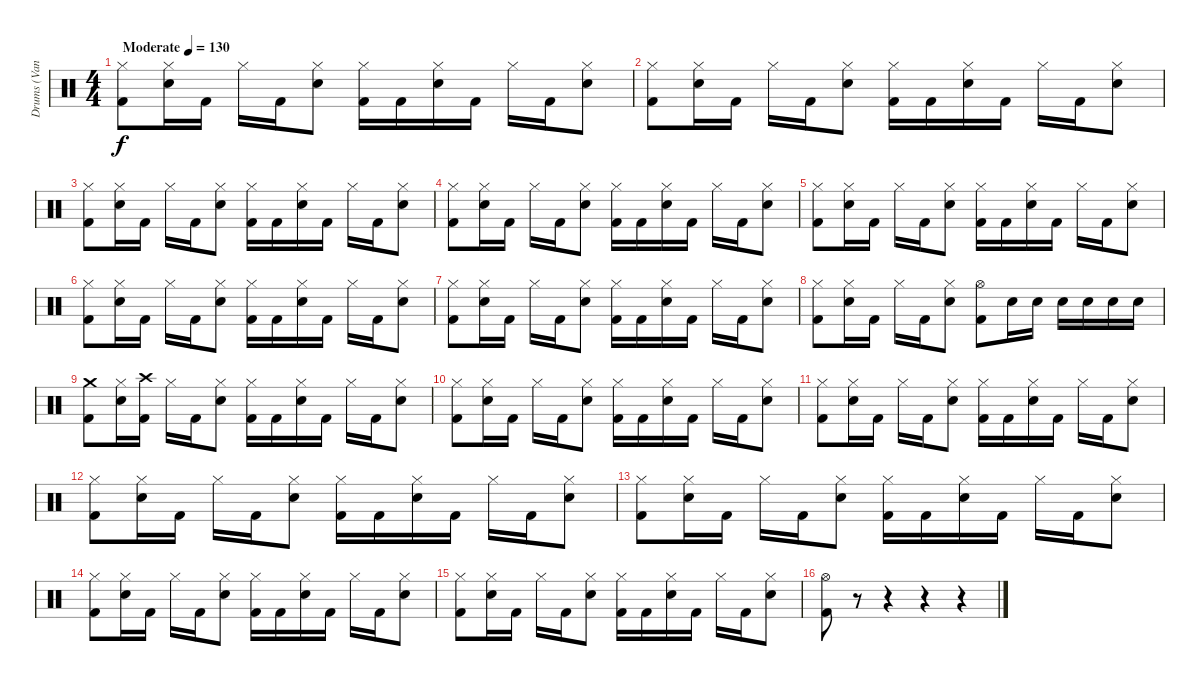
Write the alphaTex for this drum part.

\track ("Drums (Vandel)" "Drums (Van") {instrument percussion}
\staff {score}
\articulation defaults
\ts (4 4)
\tempo (130 "Moderate")
\clef neutral
\ks c
("Hi-Hat (closed)" "Kick (hit) 2").8{dy f} ("Hi-Hat (closed)" "Snare (hit) 2").16 "Kick (hit) 2".16 "Hi-Hat (closed)".16 "Kick (hit) 2".16 ("Hi-Hat (closed)" "Snare (hit) 2").8 ("Hi-Hat (closed)" "Kick (hit) 2").16 "Kick (hit) 2".16 ("Hi-Hat (closed)" "Snare (hit) 2").16 "Kick (hit) 2".16 "Hi-Hat (closed)".16 "Kick (hit) 2".16 ("Hi-Hat (closed)" "Snare (hit) 2").8 |
("Hi-Hat (closed)" "Kick (hit) 2").8 ("Hi-Hat (closed)" "Snare (hit) 2").16 "Kick (hit) 2".16 "Hi-Hat (closed)".16 "Kick (hit) 2".16 ("Hi-Hat (closed)" "Snare (hit) 2").8 ("Hi-Hat (closed)" "Kick (hit) 2").16 "Kick (hit) 2".16 ("Hi-Hat (closed)" "Snare (hit) 2").16 "Kick (hit) 2".16 "Hi-Hat (closed)".16 "Kick (hit) 2".16 ("Hi-Hat (closed)" "Snare (hit) 2").8 |
("Hi-Hat (closed)" "Kick (hit) 2").8 ("Hi-Hat (closed)" "Snare (hit) 2").16 "Kick (hit) 2".16 "Hi-Hat (closed)".16 "Kick (hit) 2".16 ("Hi-Hat (closed)" "Snare (hit) 2").8 ("Hi-Hat (closed)" "Kick (hit) 2").16 "Kick (hit) 2".16 ("Hi-Hat (closed)" "Snare (hit) 2").16 "Kick (hit) 2".16 "Hi-Hat (closed)".16 "Kick (hit) 2".16 ("Hi-Hat (closed)" "Snare (hit) 2").8 |
("Hi-Hat (closed)" "Kick (hit) 2").8 ("Hi-Hat (closed)" "Snare (hit) 2").16 "Kick (hit) 2".16 "Hi-Hat (closed)".16 "Kick (hit) 2".16 ("Hi-Hat (closed)" "Snare (hit) 2").8 ("Hi-Hat (closed)" "Kick (hit) 2").16 "Kick (hit) 2".16 ("Hi-Hat (closed)" "Snare (hit) 2").16 "Kick (hit) 2".16 "Hi-Hat (closed)".16 "Kick (hit) 2".16 ("Hi-Hat (closed)" "Snare (hit) 2").8 |
("Hi-Hat (closed)" "Kick (hit) 2").8 ("Hi-Hat (closed)" "Snare (hit) 2").16 "Kick (hit) 2".16 "Hi-Hat (closed)".16 "Kick (hit) 2".16 ("Hi-Hat (closed)" "Snare (hit) 2").8 ("Hi-Hat (closed)" "Kick (hit) 2").16 "Kick (hit) 2".16 ("Hi-Hat (closed)" "Snare (hit) 2").16 "Kick (hit) 2".16 "Hi-Hat (closed)".16 "Kick (hit) 2".16 ("Hi-Hat (closed)" "Snare (hit) 2").8 |
("Hi-Hat (closed)" "Kick (hit) 2").8 ("Hi-Hat (closed)" "Snare (hit) 2").16 "Kick (hit) 2".16 "Hi-Hat (closed)".16 "Kick (hit) 2".16 ("Hi-Hat (closed)" "Snare (hit) 2").8 ("Hi-Hat (closed)" "Kick (hit) 2").16 "Kick (hit) 2".16 ("Hi-Hat (closed)" "Snare (hit) 2").16 "Kick (hit) 2".16 "Hi-Hat (closed)".16 "Kick (hit) 2".16 ("Hi-Hat (closed)" "Snare (hit) 2").8 |
("Hi-Hat (closed)" "Kick (hit) 2").8 ("Hi-Hat (closed)" "Snare (hit) 2").16 "Kick (hit) 2".16 "Hi-Hat (closed)".16 "Kick (hit) 2".16 ("Hi-Hat (closed)" "Snare (hit) 2").8 ("Hi-Hat (closed)" "Kick (hit) 2").16 "Kick (hit) 2".16 ("Hi-Hat (closed)" "Snare (hit) 2").16 "Kick (hit) 2".16 "Hi-Hat (closed)".16 "Kick (hit) 2".16 ("Hi-Hat (closed)" "Snare (hit) 2").8 |
("Hi-Hat (closed)" "Kick (hit) 2").8 ("Hi-Hat (closed)" "Snare (hit) 2").16 "Kick (hit) 2".16 "Hi-Hat (closed)".16 "Kick (hit) 2".16 ("Hi-Hat (closed)" "Snare (hit) 2").8 ("Hi-Hat (open)" "Kick (hit) 2").8 "Snare (hit) 2".16 "Snare (hit) 2".16 "Snare (hit) 2".16 "Snare (hit) 2".16 "Snare (hit) 2".16 "Snare (hit) 2".16 |
("Crash medium (hit)" "Kick (hit) 2").8 ("Hi-Hat (closed)" "Snare (hit) 2").16 ("Crash high (hit)" "Kick (hit) 2").16 "Hi-Hat (closed)".16 "Kick (hit) 2".16 ("Hi-Hat (closed)" "Snare (hit) 2").8 ("Hi-Hat (closed)" "Kick (hit) 2").16 "Kick (hit) 2".16 ("Hi-Hat (closed)" "Snare (hit) 2").16 "Kick (hit) 2".16 "Hi-Hat (closed)".16 "Kick (hit) 2".16 ("Hi-Hat (closed)" "Snare (hit) 2").8 |
("Hi-Hat (closed)" "Kick (hit) 2").8 ("Hi-Hat (closed)" "Snare (hit) 2").16 "Kick (hit) 2".16 "Hi-Hat (closed)".16 "Kick (hit) 2".16 ("Hi-Hat (closed)" "Snare (hit) 2").8 ("Hi-Hat (closed)" "Kick (hit) 2").16 "Kick (hit) 2".16 ("Hi-Hat (closed)" "Snare (hit) 2").16 "Kick (hit) 2".16 "Hi-Hat (closed)".16 "Kick (hit) 2".16 ("Hi-Hat (closed)" "Snare (hit) 2").8 |
("Hi-Hat (closed)" "Kick (hit) 2").8 ("Hi-Hat (closed)" "Snare (hit) 2").16 "Kick (hit) 2".16 "Hi-Hat (closed)".16 "Kick (hit) 2".16 ("Hi-Hat (closed)" "Snare (hit) 2").8 ("Hi-Hat (closed)" "Kick (hit) 2").16 "Kick (hit) 2".16 ("Hi-Hat (closed)" "Snare (hit) 2").16 "Kick (hit) 2".16 "Hi-Hat (closed)".16 "Kick (hit) 2".16 ("Hi-Hat (closed)" "Snare (hit) 2").8 |
("Hi-Hat (closed)" "Kick (hit) 2").8 ("Hi-Hat (closed)" "Snare (hit) 2").16 "Kick (hit) 2".16 "Hi-Hat (closed)".16 "Kick (hit) 2".16 ("Hi-Hat (closed)" "Snare (hit) 2").8 ("Hi-Hat (closed)" "Kick (hit) 2").16 "Kick (hit) 2".16 ("Hi-Hat (closed)" "Snare (hit) 2").16 "Kick (hit) 2".16 "Hi-Hat (closed)".16 "Kick (hit) 2".16 ("Hi-Hat (closed)" "Snare (hit) 2").8 |
("Hi-Hat (closed)" "Kick (hit) 2").8 ("Hi-Hat (closed)" "Snare (hit) 2").16 "Kick (hit) 2".16 "Hi-Hat (closed)".16 "Kick (hit) 2".16 ("Hi-Hat (closed)" "Snare (hit) 2").8 ("Hi-Hat (closed)" "Kick (hit) 2").16 "Kick (hit) 2".16 ("Hi-Hat (closed)" "Snare (hit) 2").16 "Kick (hit) 2".16 "Hi-Hat (closed)".16 "Kick (hit) 2".16 ("Hi-Hat (closed)" "Snare (hit) 2").8 |
("Hi-Hat (closed)" "Kick (hit) 2").8 ("Hi-Hat (closed)" "Snare (hit) 2").16 "Kick (hit) 2".16 "Hi-Hat (closed)".16 "Kick (hit) 2".16 ("Hi-Hat (closed)" "Snare (hit) 2").8 ("Hi-Hat (closed)" "Kick (hit) 2").16 "Kick (hit) 2".16 ("Hi-Hat (closed)" "Snare (hit) 2").16 "Kick (hit) 2".16 "Hi-Hat (closed)".16 "Kick (hit) 2".16 ("Hi-Hat (closed)" "Snare (hit) 2").8 |
("Hi-Hat (closed)" "Kick (hit) 2").8 ("Hi-Hat (closed)" "Snare (hit) 2").16 "Kick (hit) 2".16 "Hi-Hat (closed)".16 "Kick (hit) 2".16 ("Hi-Hat (closed)" "Snare (hit) 2").8 ("Hi-Hat (closed)" "Kick (hit) 2").16 "Kick (hit) 2".16 ("Hi-Hat (closed)" "Snare (hit) 2").16 "Kick (hit) 2".16 "Hi-Hat (closed)".16 "Kick (hit) 2".16 ("Hi-Hat (closed)" "Snare (hit) 2").8 |
("Hi-Hat (open)" "Kick (hit) 2").8 r.8 r.4 r.4 r.4
